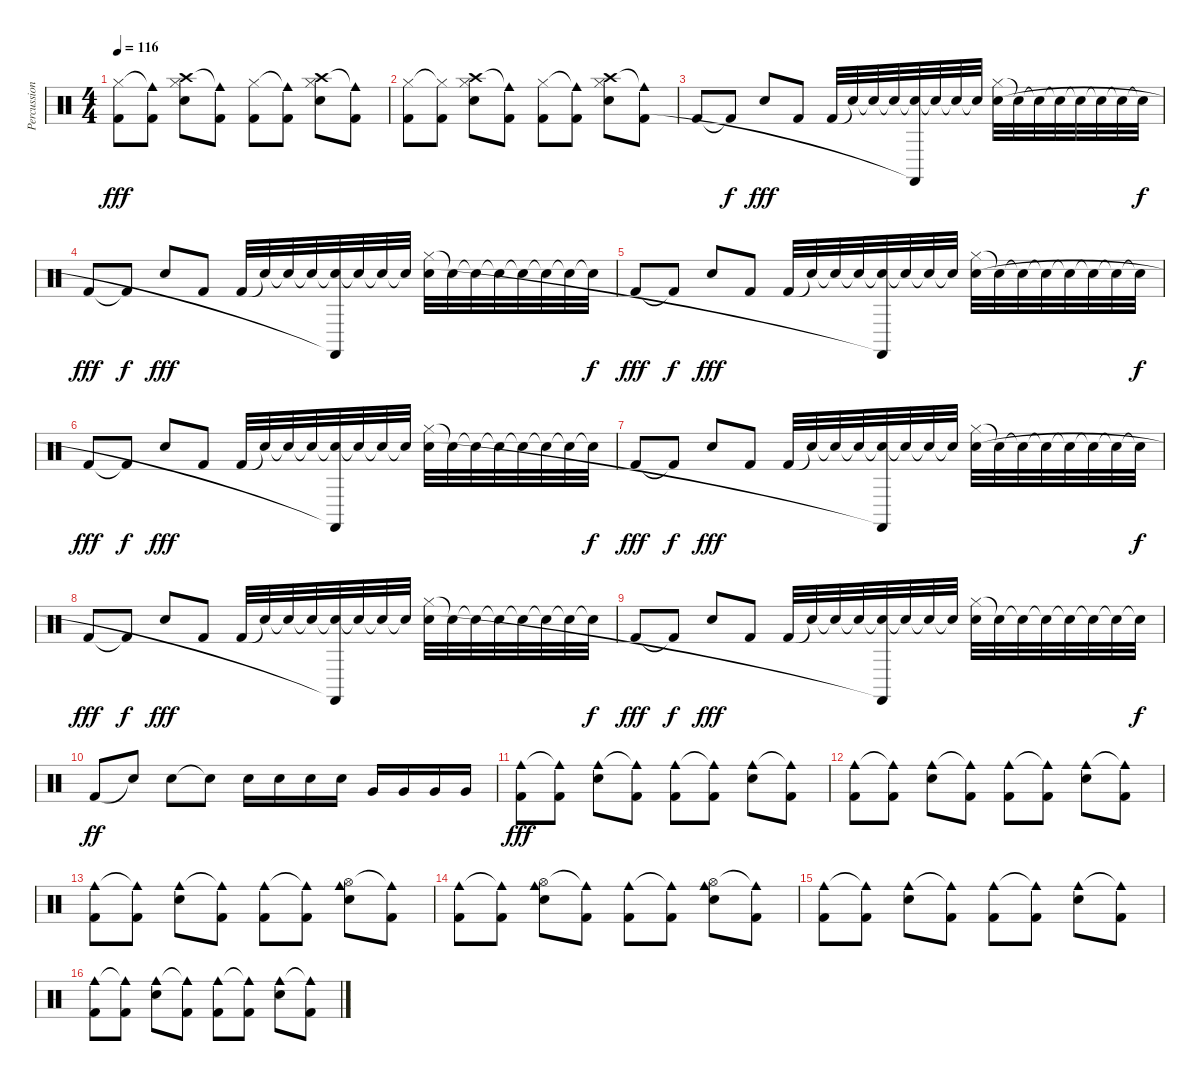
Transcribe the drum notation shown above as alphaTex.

\track ("Percussion" "Percussion") {instrument percussion}
\staff {score}
\articulation defaults
\ts (4 4)
\tempo 116
\clef neutral
\ks c
("Hi-Hat (closed)" "Kick (hit) 2").8{dy fff} ("Cowbell medium (hit)"{t} "Kick (hit) 2").8 ("Crash high (hit)" "Hi-Hat (closed)" "Electric Snare (hit)").8 ("Cowbell medium (hit)"{t} "Kick (hit) 2").8 ("Hi-Hat (closed)" "Kick (hit) 2").8 ("Cowbell medium (hit)"{t} "Kick (hit) 2").8 ("Crash high (hit)" "Hi-Hat (closed)" "Electric Snare (hit)").8 ("Cowbell medium (hit)"{t} "Kick (hit) 2").8 |
("Hi-Hat (closed)" "Kick (hit) 2").8 ("Hi-Hat (closed)"{t} "Kick (hit) 2").8 ("Crash high (hit)" "Hi-Hat (closed)" "Electric Snare (hit)").8 ("Cowbell medium (hit)"{t} "Kick (hit) 2").8 ("Hi-Hat (closed)" "Kick (hit) 2").8 ("Cowbell medium (hit)"{t} "Kick (hit) 2").8 ("Crash high (hit)" "Hi-Hat (closed)" "Electric Snare (hit)").8 ("Cowbell medium (hit)"{t} "Kick (hit) 2").8 |
"Kick (hit) 2".8 "Kick (hit) 2"{t}.8{dy f} "Electric Snare (hit)".8{dy fff} "Kick (hit) 2".8 "Kick (hit) 2".32 "Snare (hit)"{t}.32 "Snare (hit)"{t}.32 "Snare (hit)"{t}.32 ("Snare (hit)"{t} "Castanets (hit)"{t}).32 "Snare (hit)"{t}.32 "Snare (hit)"{t}.32 "Snare (hit)"{t}.32 ("Hi-Hat (closed)" "Electric Snare (hit)").32 "Snare (hit)"{t}.32 "Snare (hit)"{t}.32 "Snare (hit)"{t}.32 "Snare (hit)"{t}.32 "Snare (hit)"{t}.32 "Snare (hit)"{t}.32 "Snare (hit)"{t}.32{dy f} |
"Kick (hit) 2".8{dy fff} "Kick (hit) 2"{t}.8{dy f} "Electric Snare (hit)".8{dy fff} "Kick (hit) 2".8 "Kick (hit) 2".32 "Snare (hit)"{t}.32 "Snare (hit)"{t}.32 "Snare (hit)"{t}.32 ("Snare (hit)"{t} "Castanets (hit)"{t}).32 "Snare (hit)"{t}.32 "Snare (hit)"{t}.32 "Snare (hit)"{t}.32 ("Hi-Hat (closed)" "Electric Snare (hit)").32 "Snare (hit)"{t}.32 "Snare (hit)"{t}.32 "Snare (hit)"{t}.32 "Snare (hit)"{t}.32 "Snare (hit)"{t}.32 "Snare (hit)"{t}.32 "Snare (hit)"{t}.32{dy f} |
"Kick (hit) 2".8{dy fff} "Kick (hit) 2"{t}.8{dy f} "Electric Snare (hit)".8{dy fff} "Kick (hit) 2".8 "Kick (hit) 2".32 "Snare (hit)"{t}.32 "Snare (hit)"{t}.32 "Snare (hit)"{t}.32 ("Snare (hit)"{t} "Castanets (hit)"{t}).32 "Snare (hit)"{t}.32 "Snare (hit)"{t}.32 "Snare (hit)"{t}.32 ("Hi-Hat (closed)" "Electric Snare (hit)").32 "Snare (hit)"{t}.32 "Snare (hit)"{t}.32 "Snare (hit)"{t}.32 "Snare (hit)"{t}.32 "Snare (hit)"{t}.32 "Snare (hit)"{t}.32 "Snare (hit)"{t}.32{dy f} |
"Kick (hit) 2".8{dy fff} "Kick (hit) 2"{t}.8{dy f} "Electric Snare (hit)".8{dy fff} "Kick (hit) 2".8 "Kick (hit) 2".32 "Snare (hit)"{t}.32 "Snare (hit)"{t}.32 "Snare (hit)"{t}.32 ("Snare (hit)"{t} "Castanets (hit)"{t}).32 "Snare (hit)"{t}.32 "Snare (hit)"{t}.32 "Snare (hit)"{t}.32 ("Hi-Hat (closed)" "Electric Snare (hit)").32 "Snare (hit)"{t}.32 "Snare (hit)"{t}.32 "Snare (hit)"{t}.32 "Snare (hit)"{t}.32 "Snare (hit)"{t}.32 "Snare (hit)"{t}.32 "Snare (hit)"{t}.32{dy f} |
"Kick (hit) 2".8{dy fff} "Kick (hit) 2"{t}.8{dy f} "Electric Snare (hit)".8{dy fff} "Kick (hit) 2".8 "Kick (hit) 2".32 "Snare (hit)"{t}.32 "Snare (hit)"{t}.32 "Snare (hit)"{t}.32 ("Snare (hit)"{t} "Castanets (hit)"{t}).32 "Snare (hit)"{t}.32 "Snare (hit)"{t}.32 "Snare (hit)"{t}.32 ("Hi-Hat (closed)" "Electric Snare (hit)").32 "Snare (hit)"{t}.32 "Snare (hit)"{t}.32 "Snare (hit)"{t}.32 "Snare (hit)"{t}.32 "Snare (hit)"{t}.32 "Snare (hit)"{t}.32 "Snare (hit)"{t}.32{dy f} |
"Kick (hit) 2".8{dy fff} "Kick (hit) 2"{t}.8{dy f} "Electric Snare (hit)".8{dy fff} "Kick (hit) 2".8 "Kick (hit) 2".32 "Snare (hit)"{t}.32 "Snare (hit)"{t}.32 "Snare (hit)"{t}.32 ("Snare (hit)"{t} "Castanets (hit)"{t}).32 "Snare (hit)"{t}.32 "Snare (hit)"{t}.32 "Snare (hit)"{t}.32 ("Hi-Hat (closed)" "Electric Snare (hit)").32 "Snare (hit)"{t}.32 "Snare (hit)"{t}.32 "Snare (hit)"{t}.32 "Snare (hit)"{t}.32 "Snare (hit)"{t}.32 "Snare (hit)"{t}.32 "Snare (hit)"{t}.32{dy f} |
"Kick (hit) 2".8{dy fff} "Kick (hit) 2"{t}.8{dy f} "Electric Snare (hit)".8{dy fff} "Kick (hit) 2".8 "Kick (hit) 2".32 "Snare (hit)"{t}.32 "Snare (hit)"{t}.32 "Snare (hit)"{t}.32 ("Snare (hit)"{t} "Castanets (hit)"{t}).32 "Snare (hit)"{t}.32 "Snare (hit)"{t}.32 "Snare (hit)"{t}.32 ("Hi-Hat (closed)" "Electric Snare (hit)").32 "Snare (hit)"{t}.32 "Snare (hit)"{t}.32 "Snare (hit)"{t}.32 "Snare (hit)"{t}.32 "Snare (hit)"{t}.32 "Snare (hit)"{t}.32 "Snare (hit)"{t}.32{dy f} |
"Kick (hit) 2".8{dy ff} "Snare (hit)"{t}.8 "Electric Snare (hit)".8 "Snare (hit)"{t}.8 "Electric Snare (hit)".16 "Electric Snare (hit)".16 "Electric Snare (hit)".16 "Electric Snare (hit)".16 "Very Low Tom (hit)".16 "Very Low Tom (hit)".16 "Very Low Tom (hit)".16 "Very Low Tom (hit)".16 |
("Cowbell medium (hit)" "Kick (hit) 2").8{dy fff} ("Cowbell medium (hit)"{t} "Kick (hit) 2").8 ("Cowbell medium (hit)" "Electric Snare (hit)").8 ("Cowbell medium (hit)"{t} "Kick (hit) 2").8 ("Cowbell medium (hit)" "Kick (hit) 2").8 ("Cowbell medium (hit)"{t} "Kick (hit) 2").8 ("Cowbell medium (hit)" "Electric Snare (hit)").8 ("Cowbell medium (hit)"{t} "Kick (hit) 2").8 |
("Cowbell medium (hit)" "Kick (hit) 2").8 ("Cowbell medium (hit)"{t} "Kick (hit) 2").8 ("Cowbell medium (hit)" "Electric Snare (hit)").8 ("Cowbell medium (hit)"{t} "Kick (hit) 2").8 ("Cowbell medium (hit)" "Kick (hit) 2").8 ("Cowbell medium (hit)"{t} "Kick (hit) 2").8 ("Cowbell medium (hit)" "Electric Snare (hit)").8 ("Cowbell medium (hit)"{t} "Kick (hit) 2").8 |
("Cowbell medium (hit)" "Kick (hit) 2").8 ("Cowbell medium (hit)"{t} "Kick (hit) 2").8 ("Cowbell medium (hit)" "Electric Snare (hit)").8 ("Cowbell medium (hit)"{t} "Kick (hit) 2").8 ("Cowbell medium (hit)" "Kick (hit) 2").8 ("Cowbell medium (hit)"{t} "Kick (hit) 2").8 ("Hi-Hat (open)" "Cowbell medium (hit)" "Electric Snare (hit)").8 ("Cowbell medium (hit)"{t} "Kick (hit) 2").8 |
("Cowbell medium (hit)" "Kick (hit) 2").8 ("Cowbell medium (hit)"{t} "Kick (hit) 2").8 ("Hi-Hat (open)" "Cowbell medium (hit)" "Electric Snare (hit)").8 ("Cowbell medium (hit)"{t} "Kick (hit) 2").8 ("Cowbell medium (hit)" "Kick (hit) 2").8 ("Cowbell medium (hit)"{t} "Kick (hit) 2").8 ("Hi-Hat (open)" "Cowbell medium (hit)" "Electric Snare (hit)").8 ("Cowbell medium (hit)"{t} "Kick (hit) 2").8 |
("Cowbell medium (hit)" "Kick (hit) 2").8 ("Cowbell medium (hit)"{t} "Kick (hit) 2").8 ("Cowbell medium (hit)" "Electric Snare (hit)").8 ("Cowbell medium (hit)"{t} "Kick (hit) 2").8 ("Cowbell medium (hit)" "Kick (hit) 2").8 ("Cowbell medium (hit)"{t} "Kick (hit) 2").8 ("Cowbell medium (hit)" "Electric Snare (hit)").8 ("Cowbell medium (hit)"{t} "Kick (hit) 2").8 |
("Cowbell medium (hit)" "Kick (hit) 2").8 ("Cowbell medium (hit)"{t} "Kick (hit) 2").8 ("Cowbell medium (hit)" "Electric Snare (hit)").8 ("Cowbell medium (hit)"{t} "Kick (hit) 2").8 ("Cowbell medium (hit)" "Kick (hit) 2").8 ("Cowbell medium (hit)"{t} "Kick (hit) 2").8 ("Cowbell medium (hit)" "Electric Snare (hit)").8 ("Cowbell medium (hit)"{t} "Kick (hit) 2").8
